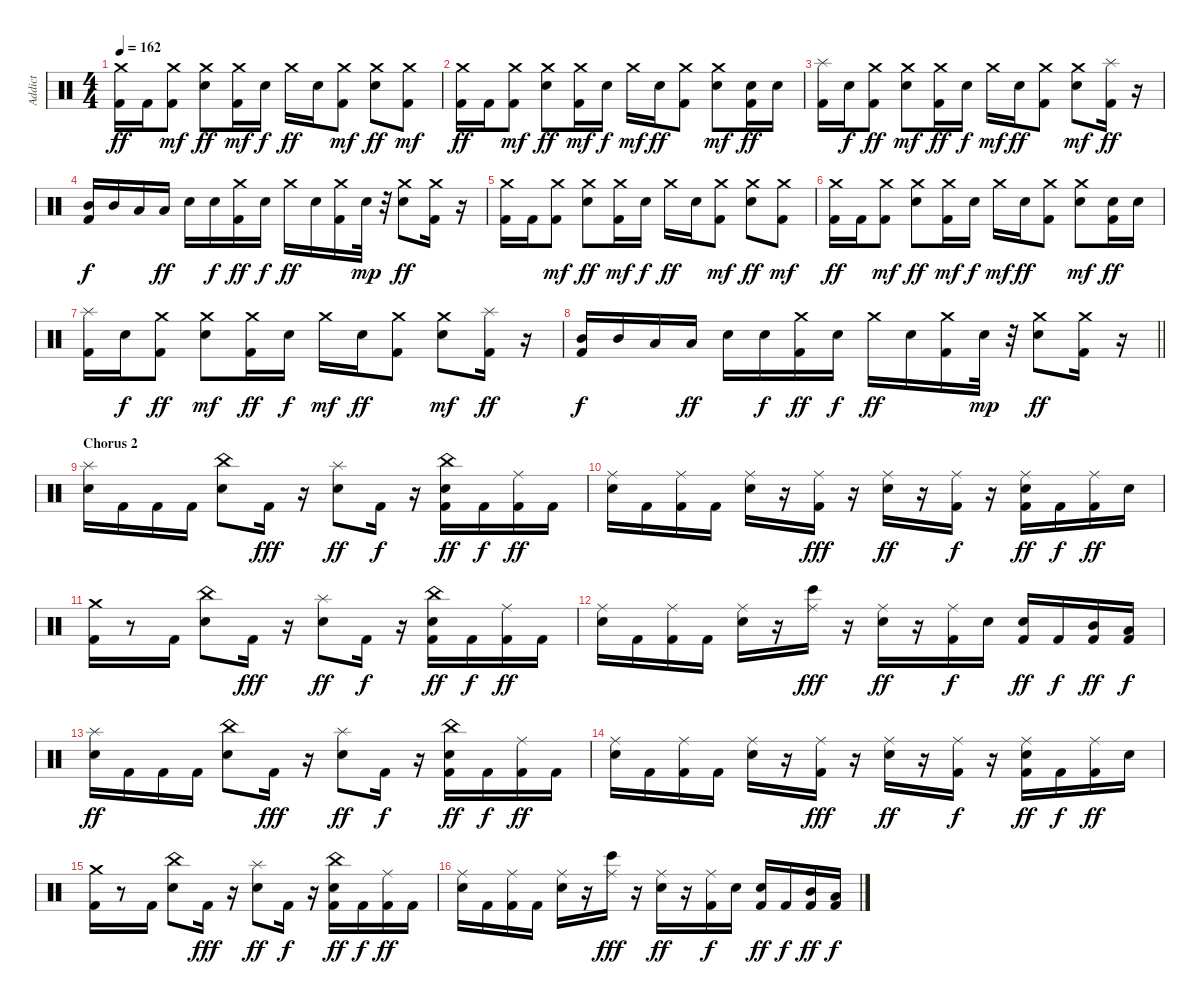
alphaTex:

\track ("Addict" "Addict") {instrument percussion}
\staff {score}
\articulation defaults
\ts (4 4)
\tempo 162
\clef neutral
\ks c
("Kick (hit) 2" "Crash medium (hit)").16{dy ff} "Kick (hit) 2".16 ("Kick (hit) 2" "Crash medium (hit)").8{dy mf} ("Snare (hit) 2" "Crash medium (hit)").8{dy ff} ("Kick (hit) 2" "Crash medium (hit)").16{dy mf} "Snare (hit) 2".16{dy f} "Crash medium (hit)".16{dy ff} "Snare (hit) 2".16 ("Kick (hit) 2" "Crash medium (hit)").8{dy mf} ("Snare (hit) 2" "Crash medium (hit)").8{dy ff} ("Kick (hit) 2" "Crash medium (hit)").8{dy mf} |
("Kick (hit) 2" "Crash medium (hit)").16{dy ff} "Kick (hit) 2".16 ("Kick (hit) 2" "Crash medium (hit)").8{dy mf} ("Snare (hit) 2" "Crash medium (hit)").8{dy ff} ("Kick (hit) 2" "Crash medium (hit)").16{dy mf} "Snare (hit) 2".16{dy f} "Crash medium (hit)".16{dy mf} "Snare (hit) 2".16{dy ff} ("Kick (hit) 2" "Crash medium (hit)").8 ("Snare (hit) 2" "Crash medium (hit)").8{dy mf} ("Kick (hit) 2" "Snare (hit) 2").16{dy ff} "Snare (hit) 2".16 |
("Kick (hit) 2" "Splash (hit)").16 "Snare (hit) 2".16{dy f} ("Kick (hit) 2" "Crash medium (hit)").8{dy ff} ("Snare (hit) 2" "Crash medium (hit)").8{dy mf} ("Kick (hit) 2" "Crash medium (hit)").16{dy ff} "Snare (hit) 2".16{dy f} "Crash medium (hit)".16{dy mf} "Snare (hit) 2".16{dy ff} ("Kick (hit) 2" "Crash medium (hit)").8 ("Snare (hit) 2" "Crash medium (hit)").8{dy mf} ("Kick (hit) 2" "Splash (hit)").16{dy ff} r.16 |
("Kick (hit) 2" "Mid Tom (hit)").16{dy f} "Mid Tom (hit)".16 "Low Tom (hit)".16 "Low Tom (hit)".16{dy ff} "Snare (hit) 2".16 "Snare (hit) 2".16{dy f} ("Kick (hit) 2" "Crash medium (hit)").16{dy ff} "Snare (hit) 2".16{dy f} "Crash medium (hit)".16{dy ff} "Snare (hit) 2".16 ("Kick (hit) 2" "Crash medium (hit)").16 "Snare (hit) 2".32{dy mp} r.32 ("Snare (hit) 2" "Crash medium (hit)").8{dy ff} ("Kick (hit) 2" "Crash medium (hit)").16 r.16 |
("Kick (hit) 2" "Crash medium (hit)").16 "Kick (hit) 2".16 ("Kick (hit) 2" "Crash medium (hit)").8{dy mf} ("Snare (hit) 2" "Crash medium (hit)").8{dy ff} ("Kick (hit) 2" "Crash medium (hit)").16{dy mf} "Snare (hit) 2".16{dy f} "Crash medium (hit)".16{dy ff} "Snare (hit) 2".16 ("Kick (hit) 2" "Crash medium (hit)").8{dy mf} ("Snare (hit) 2" "Crash medium (hit)").8{dy ff} ("Kick (hit) 2" "Crash medium (hit)").8{dy mf} |
("Kick (hit) 2" "Crash medium (hit)").16{dy ff} "Kick (hit) 2".16 ("Kick (hit) 2" "Crash medium (hit)").8{dy mf} ("Snare (hit) 2" "Crash medium (hit)").8{dy ff} ("Kick (hit) 2" "Crash medium (hit)").16{dy mf} "Snare (hit) 2".16{dy f} "Crash medium (hit)".16{dy mf} "Snare (hit) 2".16{dy ff} ("Kick (hit) 2" "Crash medium (hit)").8 ("Snare (hit) 2" "Crash medium (hit)").8{dy mf} ("Kick (hit) 2" "Snare (hit) 2").16{dy ff} "Snare (hit) 2".16 |
("Kick (hit) 2" "Splash (hit)").16 "Snare (hit) 2".16{dy f} ("Kick (hit) 2" "Crash medium (hit)").8{dy ff} ("Snare (hit) 2" "Crash medium (hit)").8{dy mf} ("Kick (hit) 2" "Crash medium (hit)").16{dy ff} "Snare (hit) 2".16{dy f} "Crash medium (hit)".16{dy mf} "Snare (hit) 2".16{dy ff} ("Kick (hit) 2" "Crash medium (hit)").8 ("Snare (hit) 2" "Crash medium (hit)").8{dy mf} ("Kick (hit) 2" "Splash (hit)").16{dy ff} r.16 |
\barLineRight lightlight
("Kick (hit) 2" "Mid Tom (hit)").16{dy f} "Mid Tom (hit)".16 "Low Tom (hit)".16 "Low Tom (hit)".16{dy ff} "Snare (hit) 2".16 "Snare (hit) 2".16{dy f} ("Kick (hit) 2" "Crash medium (hit)").16{dy ff} "Snare (hit) 2".16{dy f} "Crash medium (hit)".16{dy ff} "Snare (hit) 2".16 ("Kick (hit) 2" "Crash medium (hit)").16 "Snare (hit) 2".32{dy mp} r.32 ("Snare (hit) 2" "Crash medium (hit)").8{dy ff} ("Kick (hit) 2" "Crash medium (hit)").16 r.16 |
\section ("" "Chorus 2")
("Snare (hit) 2" "Splash (hit)").16 "Kick (hit) 2".16 "Kick (hit) 2".16 "Kick (hit) 2".16 ("Snare (hit) 2" "China (hit)").8 "Kick (hit) 2".16{dy fff} r.16 ("Snare (hit) 2" "Splash (hit)").8{dy ff} "Kick (hit) 2".16{dy f} r.16 ("Kick (hit) 2" "Snare (hit) 2" "China (hit)").16{dy ff} "Kick (hit) 2".16{dy f} ("Kick (hit) 2" "Ride (middle)").16{dy ff} "Kick (hit) 2".16 |
("Snare (hit) 2" "Ride (middle)").16 "Kick (hit) 2".16 ("Kick (hit) 2" "Ride (middle)").16 "Kick (hit) 2".16 ("Snare (hit) 2" "Ride (middle)").16 r.16 ("Ride (middle)" "Kick (hit) 2").16{dy fff} r.16 ("Snare (hit) 2" "Ride (middle)").16{dy ff} r.16 ("Kick (hit) 2" "Ride (middle)").16{dy f} r.16 ("Kick (hit) 2" "Snare (hit) 2" "Ride (middle)").16{dy ff} "Kick (hit) 2".16{dy f} ("Kick (hit) 2" "Ride (middle)").16{dy ff} "Snare (hit) 2".16 |
("Kick (hit) 2" "Crash medium (hit)").16 r.8 "Kick (hit) 2".16 ("Snare (hit) 2" "China (hit)").8 "Kick (hit) 2".16{dy fff} r.16 ("Snare (hit) 2" "Splash (hit)").8{dy ff} "Kick (hit) 2".16{dy f} r.16 ("Kick (hit) 2" "Snare (hit) 2" "China (hit)").16{dy ff} "Kick (hit) 2".16{dy f} ("Kick (hit) 2" "Ride (middle)").16{dy ff} "Kick (hit) 2".16 |
("Snare (hit) 2" "Ride (middle)").16 "Kick (hit) 2".16 ("Kick (hit) 2" "Ride (middle)").16 "Kick (hit) 2".16 ("Snare (hit) 2" "Ride (middle)").16 r.16 ("Bongo High (hit)" "Ride (middle)").16{dy fff} r.16 ("Snare (hit) 2" "Ride (middle)").16{dy ff} r.16 ("Kick (hit) 2" "Ride (middle)").16{dy f} "Snare (hit) 2".16 ("Kick (hit) 2" "Snare (hit) 2").16{dy ff} "Kick (hit) 2".16{dy f} ("Kick (hit) 2" "Mid Tom (hit)").16{dy ff} ("Low Tom (hit)" "Kick (hit) 2").16{dy f} |
("Snare (hit) 2" "Splash (hit)").16{dy ff} "Kick (hit) 2".16 "Kick (hit) 2".16 "Kick (hit) 2".16 ("Snare (hit) 2" "China (hit)").8 "Kick (hit) 2".16{dy fff} r.16 ("Snare (hit) 2" "Splash (hit)").8{dy ff} "Kick (hit) 2".16{dy f} r.16 ("Kick (hit) 2" "Snare (hit) 2" "China (hit)").16{dy ff} "Kick (hit) 2".16{dy f} ("Kick (hit) 2" "Ride (middle)").16{dy ff} "Kick (hit) 2".16 |
("Snare (hit) 2" "Ride (middle)").16 "Kick (hit) 2".16 ("Kick (hit) 2" "Ride (middle)").16 "Kick (hit) 2".16 ("Snare (hit) 2" "Ride (middle)").16 r.16 ("Ride (middle)" "Kick (hit) 2").16{dy fff} r.16 ("Snare (hit) 2" "Ride (middle)").16{dy ff} r.16 ("Kick (hit) 2" "Ride (middle)").16{dy f} r.16 ("Kick (hit) 2" "Snare (hit) 2" "Ride (middle)").16{dy ff} "Kick (hit) 2".16{dy f} ("Kick (hit) 2" "Ride (middle)").16{dy ff} "Snare (hit) 2".16 |
("Kick (hit) 2" "Crash medium (hit)").16 r.8 "Kick (hit) 2".16 ("Snare (hit) 2" "China (hit)").8 "Kick (hit) 2".16{dy fff} r.16 ("Snare (hit) 2" "Splash (hit)").8{dy ff} "Kick (hit) 2".16{dy f} r.16 ("Kick (hit) 2" "Snare (hit) 2" "China (hit)").16{dy ff} "Kick (hit) 2".16{dy f} ("Kick (hit) 2" "Ride (middle)").16{dy ff} "Kick (hit) 2".16 |
("Snare (hit) 2" "Ride (middle)").16 "Kick (hit) 2".16 ("Kick (hit) 2" "Ride (middle)").16 "Kick (hit) 2".16 ("Snare (hit) 2" "Ride (middle)").16 r.16 ("Bongo High (hit)" "Ride (middle)").16{dy fff} r.16 ("Snare (hit) 2" "Ride (middle)").16{dy ff} r.16 ("Kick (hit) 2" "Ride (middle)").16{dy f} "Snare (hit) 2".16 ("Kick (hit) 2" "Snare (hit) 2").16{dy ff} "Kick (hit) 2".16{dy f} ("Kick (hit) 2" "Mid Tom (hit)").16{dy ff} ("Low Tom (hit)" "Kick (hit) 2").16{dy f}
